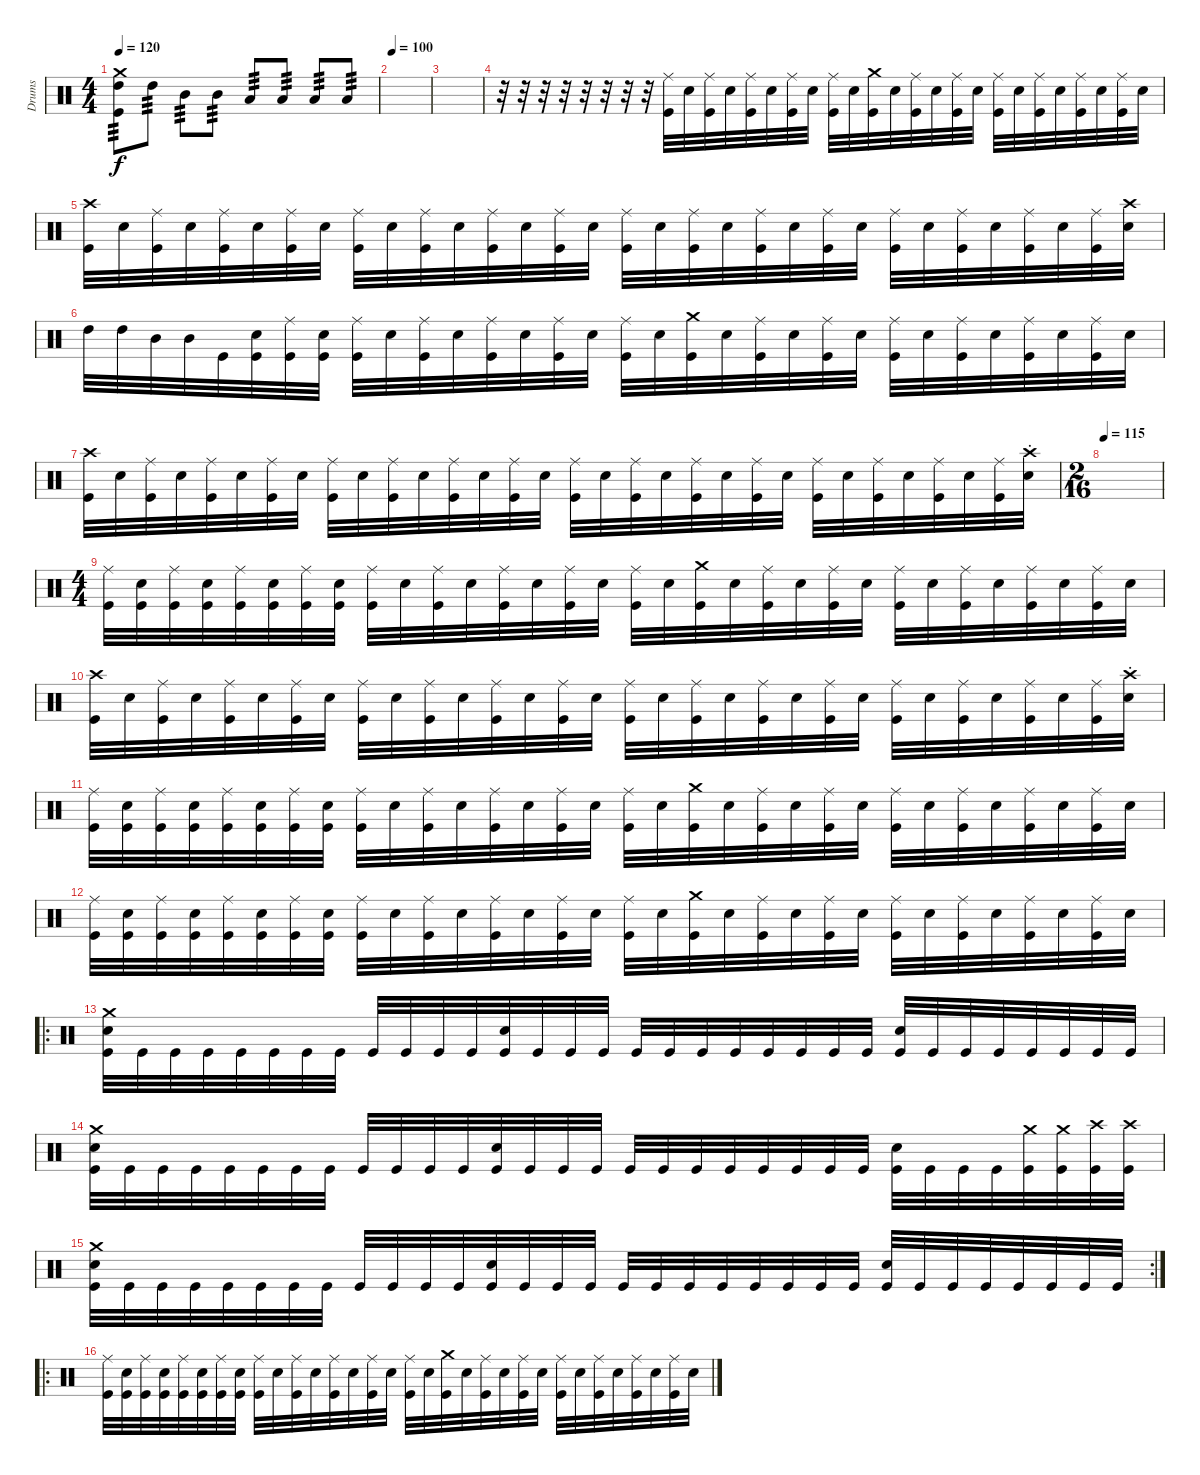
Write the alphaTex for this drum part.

\track ("Drums" "Drums") {instrument percussion}
\staff {score}
\articulation defaults
\ts (4 4)
\tempo 120
\clef neutral
\ks c
("Crash medium (hit)" "High Tom (hit)" "Kick (hit)").8{tp 3 dy f} "High Tom (hit)".8{tp 3} "Mid Tom (hit)".8{tp 3} "Mid Tom (hit)".8{tp 3} "Low Tom (hit)".8{tp 3} "Low Tom (hit)".8{tp 3} "Low Floor Tom (hit)".8{tp 3} "Low Floor Tom (hit)".8{tp 3} |
\tempo 100
|
|
r.32 r.32 r.32 r.32 r.32 r.32 r.32 r.32 ("Ride (middle)" "Kick (hit)").32 "Snare (hit) 2".32 ("Ride (middle)" "Kick (hit)").32 "Snare (hit) 2".32 ("Ride (middle)" "Kick (hit)").32 "Snare (hit) 2".32 ("Ride (middle)" "Kick (hit)").32 "Snare (hit) 2".32 ("Ride (middle)" "Kick (hit)").32 "Snare (hit) 2".32 ("Crash medium (hit)" "Kick (hit)").32 "Snare (hit) 2".32 ("Ride (middle)" "Kick (hit)").32 "Snare (hit) 2".32 ("Ride (middle)" "Kick (hit)").32 "Snare (hit) 2".32 ("Ride (middle)" "Kick (hit)").32 "Snare (hit) 2".32 ("Ride (middle)" "Kick (hit)").32 "Snare (hit) 2".32 ("Ride (middle)" "Kick (hit)").32 "Snare (hit) 2".32 ("Ride (middle)" "Kick (hit)").32 "Snare (hit) 2".32 |
("Crash high (hit)" "Kick (hit)").32 "Snare (hit) 2".32 ("Ride (middle)" "Kick (hit)").32 "Snare (hit) 2".32 ("Ride (middle)" "Kick (hit)").32 "Snare (hit) 2".32 ("Ride (middle)" "Kick (hit)").32 "Snare (hit) 2".32 ("Ride (middle)" "Kick (hit)").32 "Snare (hit) 2".32 ("Ride (middle)" "Kick (hit)").32 "Snare (hit) 2".32 ("Ride (middle)" "Kick (hit)").32 "Snare (hit) 2".32 ("Ride (middle)" "Kick (hit)").32 "Snare (hit) 2".32 ("Ride (middle)" "Kick (hit)").32 "Snare (hit) 2".32 ("Ride (middle)" "Kick (hit)").32 "Snare (hit) 2".32 ("Ride (middle)" "Kick (hit)").32 "Snare (hit) 2".32 ("Ride (middle)" "Kick (hit)").32 "Snare (hit) 2".32 ("Ride (middle)" "Kick (hit)").32 "Snare (hit) 2".32 ("Ride (middle)" "Kick (hit)").32 "Snare (hit) 2".32 ("Ride (middle)" "Kick (hit)").32 "Snare (hit) 2".32 ("Ride (middle)" "Kick (hit)").32 ("Crash high (hit)" "Snare (hit) 2").32 |
"High Tom (hit)".32 "High Tom (hit)".32 "Mid Tom (hit)".32 "Mid Tom (hit)".32 "Kick (hit)".32 ("Snare (hit) 2" "Kick (hit)").32 ("Ride (middle)" "Kick (hit)").32 ("Snare (hit) 2" "Kick (hit)").32 ("Ride (middle)" "Kick (hit)").32 "Snare (hit) 2".32 ("Ride (middle)" "Kick (hit)").32 "Snare (hit) 2".32 ("Ride (middle)" "Kick (hit)").32 "Snare (hit) 2".32 ("Ride (middle)" "Kick (hit)").32 "Snare (hit) 2".32 ("Ride (middle)" "Kick (hit)").32 "Snare (hit) 2".32 ("Crash medium (hit)" "Kick (hit)").32 "Snare (hit) 2".32 ("Ride (middle)" "Kick (hit)").32 "Snare (hit) 2".32 ("Ride (middle)" "Kick (hit)").32 "Snare (hit) 2".32 ("Ride (middle)" "Kick (hit)").32 "Snare (hit) 2".32 ("Ride (middle)" "Kick (hit)").32 "Snare (hit) 2".32 ("Ride (middle)" "Kick (hit)").32 "Snare (hit) 2".32 ("Ride (middle)" "Kick (hit)").32 "Snare (hit) 2".32 |
("Crash high (hit)" "Kick (hit)").32 "Snare (hit) 2".32 ("Ride (middle)" "Kick (hit)").32 "Snare (hit) 2".32 ("Ride (middle)" "Kick (hit)").32 "Snare (hit) 2".32 ("Ride (middle)" "Kick (hit)").32 "Snare (hit) 2".32 ("Ride (middle)" "Kick (hit)").32 "Snare (hit) 2".32 ("Ride (middle)" "Kick (hit)").32 "Snare (hit) 2".32 ("Ride (middle)" "Kick (hit)").32 "Snare (hit) 2".32 ("Ride (middle)" "Kick (hit)").32 "Snare (hit) 2".32 ("Ride (middle)" "Kick (hit)").32 "Snare (hit) 2".32 ("Ride (middle)" "Kick (hit)").32 "Snare (hit) 2".32 ("Ride (middle)" "Kick (hit)").32 "Snare (hit) 2".32 ("Ride (middle)" "Kick (hit)").32 "Snare (hit) 2".32 ("Ride (middle)" "Kick (hit)").32 "Snare (hit) 2".32 ("Ride (middle)" "Kick (hit)").32 "Snare (hit) 2".32 ("Ride (middle)" "Kick (hit)").32 "Snare (hit) 2".32 ("Ride (middle)" "Kick (hit)").32 ("Crash high (hit)"{st} "Snare (hit) 2"{st}).32 |
\ts (2 16)
\tempo 115
|
\ts (4 4)
("Ride (middle)" "Kick (hit)").32 ("Snare (hit) 2" "Kick (hit)").32 ("Ride (middle)" "Kick (hit)").32 ("Snare (hit) 2" "Kick (hit)").32 ("Ride (middle)" "Kick (hit)").32 ("Snare (hit) 2" "Kick (hit)").32 ("Ride (middle)" "Kick (hit)").32 ("Snare (hit) 2" "Kick (hit)").32 ("Ride (middle)" "Kick (hit)").32 "Snare (hit) 2".32 ("Ride (middle)" "Kick (hit)").32 "Snare (hit) 2".32 ("Ride (middle)" "Kick (hit)").32 "Snare (hit) 2".32 ("Ride (middle)" "Kick (hit)").32 "Snare (hit) 2".32 ("Ride (middle)" "Kick (hit)").32 "Snare (hit) 2".32 ("Crash medium (hit)" "Kick (hit)").32 "Snare (hit) 2".32 ("Ride (middle)" "Kick (hit)").32 "Snare (hit) 2".32 ("Ride (middle)" "Kick (hit)").32 "Snare (hit) 2".32 ("Ride (middle)" "Kick (hit)").32 "Snare (hit) 2".32 ("Ride (middle)" "Kick (hit)").32 "Snare (hit) 2".32 ("Ride (middle)" "Kick (hit)").32 "Snare (hit) 2".32 ("Ride (middle)" "Kick (hit)").32 "Snare (hit) 2".32 |
("Crash high (hit)" "Kick (hit)").32 "Snare (hit) 2".32 ("Ride (middle)" "Kick (hit)").32 "Snare (hit) 2".32 ("Ride (middle)" "Kick (hit)").32 "Snare (hit) 2".32 ("Ride (middle)" "Kick (hit)").32 "Snare (hit) 2".32 ("Ride (middle)" "Kick (hit)").32 "Snare (hit) 2".32 ("Ride (middle)" "Kick (hit)").32 "Snare (hit) 2".32 ("Ride (middle)" "Kick (hit)").32 "Snare (hit) 2".32 ("Ride (middle)" "Kick (hit)").32 "Snare (hit) 2".32 ("Ride (middle)" "Kick (hit)").32 "Snare (hit) 2".32 ("Ride (middle)" "Kick (hit)").32 "Snare (hit) 2".32 ("Ride (middle)" "Kick (hit)").32 "Snare (hit) 2".32 ("Ride (middle)" "Kick (hit)").32 "Snare (hit) 2".32 ("Ride (middle)" "Kick (hit)").32 "Snare (hit) 2".32 ("Ride (middle)" "Kick (hit)").32 "Snare (hit) 2".32 ("Ride (middle)" "Kick (hit)").32 "Snare (hit) 2".32 ("Ride (middle)" "Kick (hit)").32 ("Crash high (hit)"{st} "Snare (hit) 2"{st}).32 |
("Ride (middle)" "Kick (hit)").32 ("Snare (hit) 2" "Kick (hit)").32 ("Ride (middle)" "Kick (hit)").32 ("Snare (hit) 2" "Kick (hit)").32 ("Ride (middle)" "Kick (hit)").32 ("Snare (hit) 2" "Kick (hit)").32 ("Ride (middle)" "Kick (hit)").32 ("Snare (hit) 2" "Kick (hit)").32 ("Ride (middle)" "Kick (hit)").32 "Snare (hit) 2".32 ("Ride (middle)" "Kick (hit)").32 "Snare (hit) 2".32 ("Ride (middle)" "Kick (hit)").32 "Snare (hit) 2".32 ("Ride (middle)" "Kick (hit)").32 "Snare (hit) 2".32 ("Ride (middle)" "Kick (hit)").32 "Snare (hit) 2".32 ("Crash medium (hit)" "Kick (hit)").32 "Snare (hit) 2".32 ("Ride (middle)" "Kick (hit)").32 "Snare (hit) 2".32 ("Ride (middle)" "Kick (hit)").32 "Snare (hit) 2".32 ("Ride (middle)" "Kick (hit)").32 "Snare (hit) 2".32 ("Ride (middle)" "Kick (hit)").32 "Snare (hit) 2".32 ("Ride (middle)" "Kick (hit)").32 "Snare (hit) 2".32 ("Ride (middle)" "Kick (hit)").32 "Snare (hit) 2".32 |
("Ride (middle)" "Kick (hit)").32 ("Snare (hit) 2" "Kick (hit)").32 ("Ride (middle)" "Kick (hit)").32 ("Snare (hit) 2" "Kick (hit)").32 ("Ride (middle)" "Kick (hit)").32 ("Snare (hit) 2" "Kick (hit)").32 ("Ride (middle)" "Kick (hit)").32 ("Snare (hit) 2" "Kick (hit)").32 ("Ride (middle)" "Kick (hit)").32 "Snare (hit) 2".32 ("Ride (middle)" "Kick (hit)").32 "Snare (hit) 2".32 ("Ride (middle)" "Kick (hit)").32 "Snare (hit) 2".32 ("Ride (middle)" "Kick (hit)").32 "Snare (hit) 2".32 ("Ride (middle)" "Kick (hit)").32 "Snare (hit) 2".32 ("Crash medium (hit)" "Kick (hit)").32 "Snare (hit) 2".32 ("Ride (middle)" "Kick (hit)").32 "Snare (hit) 2".32 ("Ride (middle)" "Kick (hit)").32 "Snare (hit) 2".32 ("Ride (middle)" "Kick (hit)").32 "Snare (hit) 2".32 ("Ride (middle)" "Kick (hit)").32 "Snare (hit) 2".32 ("Ride (middle)" "Kick (hit)").32 "Snare (hit) 2".32 ("Ride (middle)" "Kick (hit)").32 "Snare (hit) 2".32 |
\ro
("Crash medium (hit)" "Snare (hit) 2" "Kick (hit)").32 "Kick (hit)".32 "Kick (hit)".32 "Kick (hit)".32 "Kick (hit)".32 "Kick (hit)".32 "Kick (hit)".32 "Kick (hit)".32 "Kick (hit)".32 "Kick (hit)".32 "Kick (hit)".32 "Kick (hit)".32 ("Snare (hit) 2" "Kick (hit)").32 "Kick (hit)".32 "Kick (hit)".32 "Kick (hit)".32 "Kick (hit)".32 "Kick (hit)".32 "Kick (hit)".32 "Kick (hit)".32 "Kick (hit)".32 "Kick (hit)".32 "Kick (hit)".32 "Kick (hit)".32 ("Snare (hit) 2" "Kick (hit)").32 "Kick (hit)".32 "Kick (hit)".32 "Kick (hit)".32 "Kick (hit)".32 "Kick (hit)".32 "Kick (hit)".32 "Kick (hit)".32 |
("Crash medium (hit)" "Snare (hit) 2" "Kick (hit)").32 "Kick (hit)".32 "Kick (hit)".32 "Kick (hit)".32 "Kick (hit)".32 "Kick (hit)".32 "Kick (hit)".32 "Kick (hit)".32 "Kick (hit)".32 "Kick (hit)".32 "Kick (hit)".32 "Kick (hit)".32 ("Snare (hit) 2" "Kick (hit)").32 "Kick (hit)".32 "Kick (hit)".32 "Kick (hit)".32 "Kick (hit)".32 "Kick (hit)".32 "Kick (hit)".32 "Kick (hit)".32 "Kick (hit)".32 "Kick (hit)".32 "Kick (hit)".32 "Kick (hit)".32 ("Snare (hit) 2" "Kick (hit)").32 "Kick (hit)".32 "Kick (hit)".32 "Kick (hit)".32 ("Crash medium (hit)" "Kick (hit)").32 ("Crash medium (hit)" "Kick (hit)").32 ("Crash high (hit)" "Kick (hit)").32 ("Crash high (hit)" "Kick (hit)").32 |
\rc 2
("Crash medium (hit)" "Snare (hit) 2" "Kick (hit)").32 "Kick (hit)".32 "Kick (hit)".32 "Kick (hit)".32 "Kick (hit)".32 "Kick (hit)".32 "Kick (hit)".32 "Kick (hit)".32 "Kick (hit)".32 "Kick (hit)".32 "Kick (hit)".32 "Kick (hit)".32 ("Snare (hit) 2" "Kick (hit)").32 "Kick (hit)".32 "Kick (hit)".32 "Kick (hit)".32 "Kick (hit)".32 "Kick (hit)".32 "Kick (hit)".32 "Kick (hit)".32 "Kick (hit)".32 "Kick (hit)".32 "Kick (hit)".32 "Kick (hit)".32 ("Snare (hit) 2" "Kick (hit)").32 "Kick (hit)".32 "Kick (hit)".32 "Kick (hit)".32 "Kick (hit)".32 "Kick (hit)".32 "Kick (hit)".32 "Kick (hit)".32 |
\ro
("Ride (middle)" "Kick (hit)").32 ("Snare (hit) 2" "Kick (hit)").32 ("Ride (middle)" "Kick (hit)").32 ("Snare (hit) 2" "Kick (hit)").32 ("Ride (middle)" "Kick (hit)").32 ("Snare (hit) 2" "Kick (hit)").32 ("Ride (middle)" "Kick (hit)").32 ("Snare (hit) 2" "Kick (hit)").32 ("Ride (middle)" "Kick (hit)").32 "Snare (hit) 2".32 ("Ride (middle)" "Kick (hit)").32 "Snare (hit) 2".32 ("Ride (middle)" "Kick (hit)").32 "Snare (hit) 2".32 ("Ride (middle)" "Kick (hit)").32 "Snare (hit) 2".32 ("Ride (middle)" "Kick (hit)").32 "Snare (hit) 2".32 ("Crash medium (hit)" "Kick (hit)").32 "Snare (hit) 2".32 ("Ride (middle)" "Kick (hit)").32 "Snare (hit) 2".32 ("Ride (middle)" "Kick (hit)").32 "Snare (hit) 2".32 ("Ride (middle)" "Kick (hit)").32 "Snare (hit) 2".32 ("Ride (middle)" "Kick (hit)").32 "Snare (hit) 2".32 ("Ride (middle)" "Kick (hit)").32 "Snare (hit) 2".32 ("Ride (middle)" "Kick (hit)").32 "Snare (hit) 2".32
